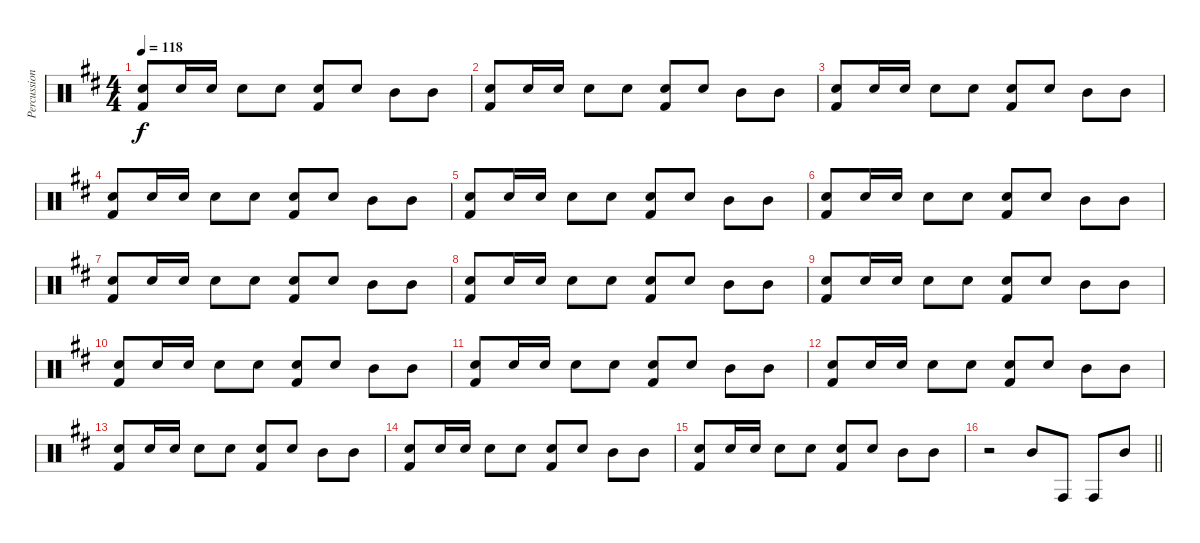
\track ("Percussion" "Percussion") {instrument percussion}
\staff {score}
\articulation defaults
\ts (4 4)
\tempo 118
\clef neutral
\ks d
("Snare (hit) 2" "Kick (hit) 2").8{dy f} "Snare (hit) 2".16 "Snare (hit) 2".16 "Snare (hit) 2".8 "Snare (hit) 2".8 ("Snare (hit) 2" "Kick (hit) 2").8 "Snare (hit) 2".8 "Mid Tom (hit)".8 "Mid Tom (hit)".8 |
("Snare (hit) 2" "Kick (hit) 2").8 "Snare (hit) 2".16 "Snare (hit) 2".16 "Snare (hit) 2".8 "Snare (hit) 2".8 ("Snare (hit) 2" "Kick (hit) 2").8 "Snare (hit) 2".8 "Mid Tom (hit)".8 "Mid Tom (hit)".8 |
("Snare (hit) 2" "Kick (hit) 2").8 "Snare (hit) 2".16 "Snare (hit) 2".16 "Snare (hit) 2".8 "Snare (hit) 2".8 ("Snare (hit) 2" "Kick (hit) 2").8 "Snare (hit) 2".8 "Mid Tom (hit)".8 "Mid Tom (hit)".8 |
("Snare (hit) 2" "Kick (hit) 2").8 "Snare (hit) 2".16 "Snare (hit) 2".16 "Snare (hit) 2".8 "Snare (hit) 2".8 ("Snare (hit) 2" "Kick (hit) 2").8 "Snare (hit) 2".8 "Mid Tom (hit)".8 "Mid Tom (hit)".8 |
("Snare (hit) 2" "Kick (hit) 2").8 "Snare (hit) 2".16 "Snare (hit) 2".16 "Snare (hit) 2".8 "Snare (hit) 2".8 ("Snare (hit) 2" "Kick (hit) 2").8 "Snare (hit) 2".8 "Mid Tom (hit)".8 "Mid Tom (hit)".8 |
("Snare (hit) 2" "Kick (hit) 2").8 "Snare (hit) 2".16 "Snare (hit) 2".16 "Snare (hit) 2".8 "Snare (hit) 2".8 ("Snare (hit) 2" "Kick (hit) 2").8 "Snare (hit) 2".8 "Mid Tom (hit)".8 "Mid Tom (hit)".8 |
("Snare (hit) 2" "Kick (hit) 2").8 "Snare (hit) 2".16 "Snare (hit) 2".16 "Snare (hit) 2".8 "Snare (hit) 2".8 ("Snare (hit) 2" "Kick (hit) 2").8 "Snare (hit) 2".8 "Mid Tom (hit)".8 "Mid Tom (hit)".8 |
("Snare (hit) 2" "Kick (hit) 2").8 "Snare (hit) 2".16 "Snare (hit) 2".16 "Snare (hit) 2".8 "Snare (hit) 2".8 ("Snare (hit) 2" "Kick (hit) 2").8 "Snare (hit) 2".8 "Mid Tom (hit)".8 "Mid Tom (hit)".8 |
("Snare (hit) 2" "Kick (hit) 2").8 "Snare (hit) 2".16 "Snare (hit) 2".16 "Snare (hit) 2".8 "Snare (hit) 2".8 ("Snare (hit) 2" "Kick (hit) 2").8 "Snare (hit) 2".8 "Mid Tom (hit)".8 "Mid Tom (hit)".8 |
("Snare (hit) 2" "Kick (hit) 2").8 "Snare (hit) 2".16 "Snare (hit) 2".16 "Snare (hit) 2".8 "Snare (hit) 2".8 ("Snare (hit) 2" "Kick (hit) 2").8 "Snare (hit) 2".8 "Mid Tom (hit)".8 "Mid Tom (hit)".8 |
("Snare (hit) 2" "Kick (hit) 2").8 "Snare (hit) 2".16 "Snare (hit) 2".16 "Snare (hit) 2".8 "Snare (hit) 2".8 ("Snare (hit) 2" "Kick (hit) 2").8 "Snare (hit) 2".8 "Mid Tom (hit)".8 "Mid Tom (hit)".8 |
("Snare (hit) 2" "Kick (hit) 2").8 "Snare (hit) 2".16 "Snare (hit) 2".16 "Snare (hit) 2".8 "Snare (hit) 2".8 ("Snare (hit) 2" "Kick (hit) 2").8 "Snare (hit) 2".8 "Mid Tom (hit)".8 "Mid Tom (hit)".8 |
("Snare (hit) 2" "Kick (hit) 2").8 "Snare (hit) 2".16 "Snare (hit) 2".16 "Snare (hit) 2".8 "Snare (hit) 2".8 ("Snare (hit) 2" "Kick (hit) 2").8 "Snare (hit) 2".8 "Mid Tom (hit)".8 "Mid Tom (hit)".8 |
("Snare (hit) 2" "Kick (hit) 2").8 "Snare (hit) 2".16 "Snare (hit) 2".16 "Snare (hit) 2".8 "Snare (hit) 2".8 ("Snare (hit) 2" "Kick (hit) 2").8 "Snare (hit) 2".8 "Mid Tom (hit)".8 "Mid Tom (hit)".8 |
("Snare (hit) 2" "Kick (hit) 2").8 "Snare (hit) 2".16 "Snare (hit) 2".16 "Snare (hit) 2".8 "Snare (hit) 2".8 ("Snare (hit) 2" "Kick (hit) 2").8 "Snare (hit) 2".8 "Mid Tom (hit)".8 "Mid Tom (hit)".8 |
\barLineRight lightlight
r.2 "Mid Tom (hit)".8 "Conga high (hit)".8 "Conga high (hit)".8 "Mid Tom (hit)".8
